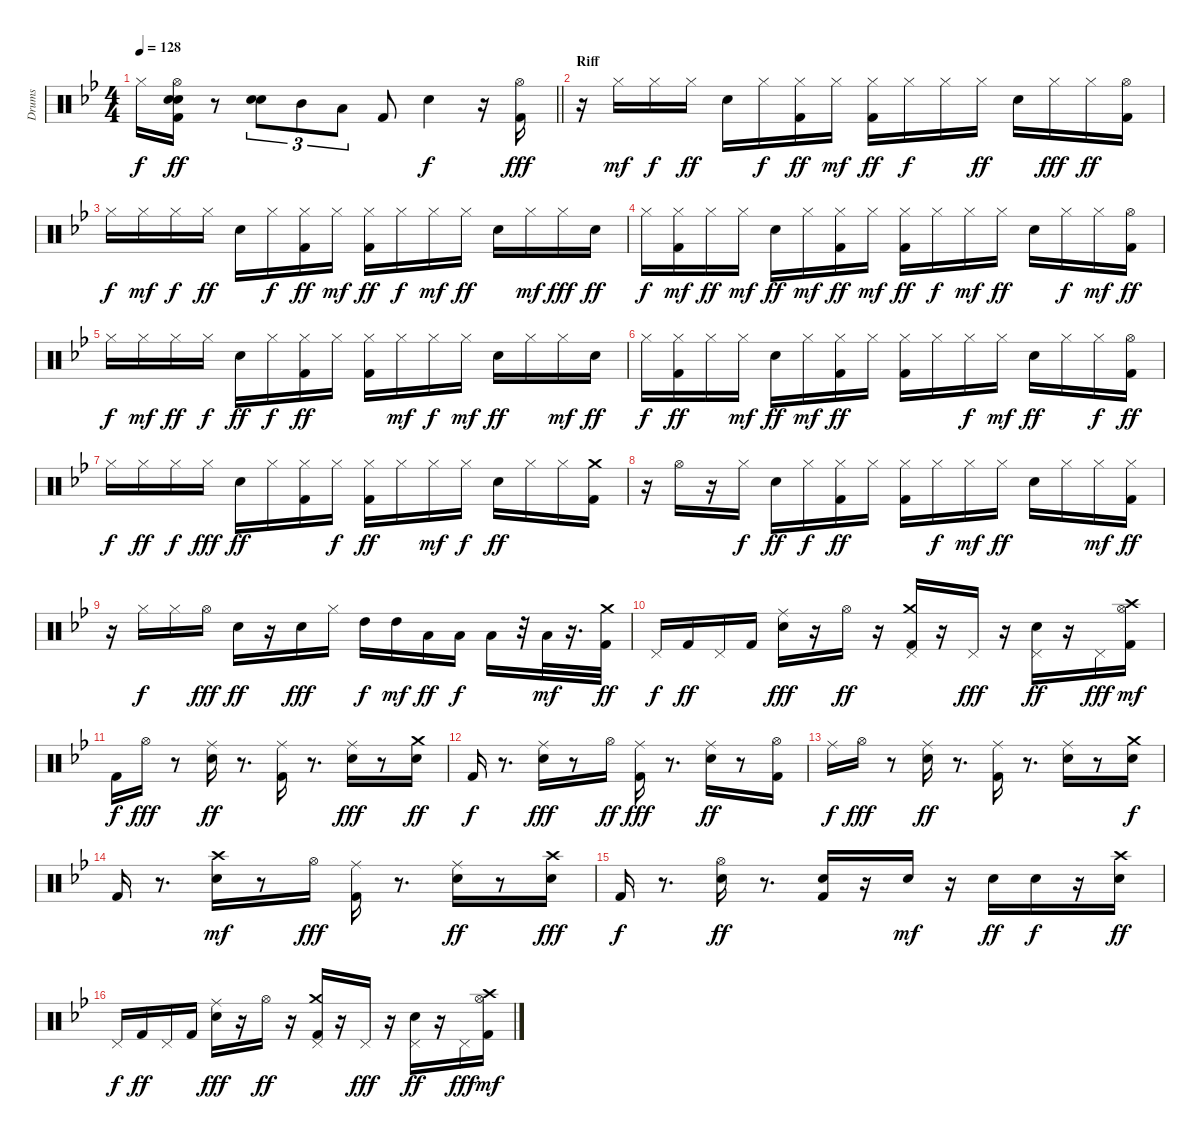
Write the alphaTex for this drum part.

\track ("Drums" "Drums") {instrument percussion}
\staff {score}
\articulation defaults
\ts (4 4)
\tempo 128
\clef neutral
\barLineRight lightlight
\ks gminor "Hi-Hat (closed)".16{dy f}
("Hi-Hat (open)" "Snare (hit) 2" "Kick (hit) 2" "Snare (hit) 2").16{dy ff} r.8 ("Snare (hit) 2" "Snare (hit) 2").8{tu (3 2)} "Mid Tom (hit)".8{tu (3 2)} "Low Tom (hit)".8{tu (3 2)} "Kick (hit) 2".8 "Snare (hit) 2".4{dy f} r.16 ("Kick (hit) 2" "Hi-Hat (open)").16{dy fff} |
\section ("" "Riff")
r.16 "Hi-Hat (closed)".16{dy mf} "Hi-Hat (closed)".16{dy f} "Hi-Hat (closed)".16{dy ff} "Snare (hit) 2".16 "Hi-Hat (closed)".16{dy f} ("Hi-Hat (closed)" "Kick (hit) 2").16{dy ff} "Hi-Hat (closed)".16{dy mf} ("Hi-Hat (closed)" "Kick (hit) 2").16{dy ff} "Hi-Hat (closed)".16{dy f} "Hi-Hat (closed)".16 "Hi-Hat (closed)".16{dy ff} "Snare (hit) 2".16 "Hi-Hat (closed)".16{dy fff} "Hi-Hat (closed)".16{dy ff} ("Hi-Hat (open)" "Kick (hit) 2").16 |
"Hi-Hat (closed)".16{dy f} "Hi-Hat (closed)".16{dy mf} "Hi-Hat (closed)".16{dy f} "Hi-Hat (closed)".16{dy ff} "Snare (hit) 2".16 "Hi-Hat (closed)".16{dy f} ("Hi-Hat (closed)" "Kick (hit) 2").16{dy ff} "Hi-Hat (closed)".16{dy mf} ("Hi-Hat (closed)" "Kick (hit) 2").16{dy ff} "Hi-Hat (closed)".16{dy f} "Hi-Hat (closed)".16{dy mf} "Hi-Hat (closed)".16{dy ff} "Snare (hit) 2".16 "Hi-Hat (closed)".16{dy mf} "Hi-Hat (closed)".16{dy fff} "Snare (hit) 2".16{dy ff} |
"Hi-Hat (closed)".16{dy f} ("Kick (hit) 2" "Hi-Hat (closed)").16{dy mf} "Hi-Hat (closed)".16{dy ff} "Hi-Hat (closed)".16{dy mf} "Snare (hit) 2".16{dy ff} "Hi-Hat (closed)".16{dy mf} ("Kick (hit) 2" "Hi-Hat (closed)").16{dy ff} "Hi-Hat (closed)".16{dy mf} ("Kick (hit) 2" "Hi-Hat (closed)").16{dy ff} "Hi-Hat (closed)".16{dy f} "Hi-Hat (closed)".16{dy mf} "Hi-Hat (closed)".16{dy ff} "Snare (hit) 2".16 "Hi-Hat (closed)".16{dy f} "Hi-Hat (closed)".16{dy mf} ("Kick (hit) 2" "Hi-Hat (open)").16{dy ff} |
"Hi-Hat (closed)".16{dy f} "Hi-Hat (closed)".16{dy mf} "Hi-Hat (closed)".16{dy ff} "Hi-Hat (closed)".16{dy f} "Snare (hit) 2".16{dy ff} "Hi-Hat (closed)".16{dy f} ("Hi-Hat (closed)" "Kick (hit) 2").16{dy ff} "Hi-Hat (closed)".16 ("Hi-Hat (closed)" "Kick (hit) 2").16 "Hi-Hat (closed)".16{dy mf} "Hi-Hat (closed)".16{dy f} "Hi-Hat (closed)".16{dy mf} "Snare (hit) 2".16{dy ff} "Hi-Hat (closed)".16 "Hi-Hat (closed)".16{dy mf} "Snare (hit) 2".16{dy ff} |
"Hi-Hat (closed)".16{dy f} ("Hi-Hat (closed)" "Kick (hit) 2").16{dy ff} "Hi-Hat (closed)".16 "Hi-Hat (closed)".16{dy mf} "Snare (hit) 2".16{dy ff} "Hi-Hat (closed)".16{dy mf} ("Hi-Hat (closed)" "Kick (hit) 2").16{dy ff} "Hi-Hat (closed)".16 ("Hi-Hat (closed)" "Kick (hit) 2").16 "Hi-Hat (closed)".16 "Hi-Hat (closed)".16{dy f} "Hi-Hat (closed)".16{dy mf} "Snare (hit) 2".16{dy ff} "Hi-Hat (closed)".16 "Hi-Hat (closed)".16{dy f} ("Hi-Hat (open)" "Kick (hit) 2").16{dy ff} |
"Hi-Hat (closed)".16{dy f} "Hi-Hat (closed)".16{dy ff} "Hi-Hat (closed)".16{dy f} "Hi-Hat (closed)".16{dy fff} "Snare (hit) 2".16{dy ff} "Hi-Hat (closed)".16 ("Hi-Hat (closed)" "Kick (hit) 2").16 "Hi-Hat (closed)".16{dy f} ("Hi-Hat (closed)" "Kick (hit) 2").16{dy ff} "Hi-Hat (closed)".16 "Hi-Hat (closed)".16{dy mf} "Hi-Hat (closed)".16{dy f} "Snare (hit) 2".16{dy ff} "Hi-Hat (closed)".16 "Hi-Hat (closed)".16 ("Kick (hit) 2" "Crash medium (hit)").16 |
r.16 "Hi-Hat (open)".16 r.16 "Hi-Hat (closed)".16{dy f} "Snare (hit) 2".16{dy ff} "Hi-Hat (closed)".16{dy f} ("Hi-Hat (closed)" "Kick (hit) 2").16{dy ff} "Hi-Hat (closed)".16 ("Hi-Hat (closed)" "Kick (hit) 2").16 "Hi-Hat (closed)".16{dy f} "Hi-Hat (closed)".16{dy mf} "Hi-Hat (closed)".16{dy ff} "Snare (hit) 2".16 "Hi-Hat (closed)".16 "Hi-Hat (closed)".16{dy mf} ("Hi-Hat (closed)" "Kick (hit) 2").16{dy ff} |
r.16 "Hi-Hat (closed)".16{dy f} "Hi-Hat (closed)".16 "Hi-Hat (open)".16{dy fff} "Snare (hit) 2".16{dy ff} r.16 "Snare (hit) 2".16{dy fff} "Hi-Hat (closed)".16 "High Tom (hit)".16{dy f} "High Tom (hit)".16{dy mf} "Low Tom (hit)".16{dy ff} "Low Tom (hit)".16{dy f} "Low Floor Tom (hit)".16 r.32 "Low Floor Tom (hit)".32{dy mf} r.16{d} ("Kick (hit) 2" "Crash medium (hit)").32{dy ff} |
"Pedal Hi-Hat (hit)".16{dy f} "Kick (hit) 2".16{dy ff} "Pedal Hi-Hat (hit)".16 "Kick (hit) 2".16 ("Snare (hit) 2" "Ride (middle)").16{dy fff} r.16 "Hi-Hat (open)".16{dy ff} r.16 ("Crash medium (hit)" "Kick (hit) 2" "Pedal Hi-Hat (hit)").16 r.16 "Pedal Hi-Hat (hit)".16{dy fff} r.16 ("Pedal Hi-Hat (hit)" "Snare (hit) 2").16{dy ff} r.16 "Pedal Hi-Hat (hit)".16{dy fff} ("Hi-Hat (open)" "Kick (hit) 2" "Crash high (hit)").16{dy mf} |
"Kick (hit) 2".16{dy f} "Hi-Hat (open)".16{dy fff} r.8 ("Snare (hit) 2" "Ride (middle)").16{dy ff} r.8{d} ("Kick (hit) 2" "Ride (middle)").16 r.8{d} ("Snare (hit) 2" "Ride (middle)").16{dy fff} r.8 ("Snare (hit) 2" "Crash medium (hit)").16{dy ff} |
"Kick (hit) 2".16{dy f} r.8{d} ("Snare (hit) 2" "Ride (middle)").16{dy fff} r.8 "Hi-Hat (open)".16{dy ff} ("Kick (hit) 2" "Ride (middle)").16{dy fff} r.8{d} ("Snare (hit) 2" "Ride (middle)").16{dy ff} r.8 ("Kick (hit) 2" "Hi-Hat (open)").16 |
"Ride (middle)".16{dy f} "Hi-Hat (open)".16{dy fff} r.8 ("Ride (middle)" "Snare (hit) 2").16{dy ff} r.8{d} ("Ride (middle)" "Kick (hit) 2").16 r.8{d} ("Ride (middle)" "Snare (hit) 2").16 r.8 ("Crash medium (hit)" "Snare (hit) 2").16{dy f} |
"Kick (hit) 2".16 r.8{d} ("Snare (hit) 2" "Crash high (hit)").16{dy mf} r.8 "Hi-Hat (open)".16{dy fff} ("Kick (hit) 2" "Ride (middle)").16 r.8{d} ("Snare (hit) 2" "Ride (middle)").16{dy ff} r.8 ("Snare (hit) 2" "Crash high (hit)").16{dy fff} |
"Kick (hit) 2".16{dy f} r.8{d} ("Snare (hit) 2" "Hi-Hat (open)").16{dy ff} r.8{d} ("Kick (hit) 2" "Snare (hit) 2").16 r.16 "Snare (hit) 2".16{dy mf} r.16 "Snare (hit) 2".16{dy ff} "Snare (hit) 2".16{dy f} r.16 ("Snare (hit) 2" "Crash high (hit)").16{dy ff} |
"Pedal Hi-Hat (hit)".16{dy f} "Kick (hit) 2".16{dy ff} "Pedal Hi-Hat (hit)".16 "Kick (hit) 2".16 ("Snare (hit) 2" "Ride (middle)").16{dy fff} r.16 "Hi-Hat (open)".16{dy ff} r.16 ("Crash medium (hit)" "Kick (hit) 2" "Pedal Hi-Hat (hit)").16 r.16 "Pedal Hi-Hat (hit)".16{dy fff} r.16 ("Pedal Hi-Hat (hit)" "Snare (hit) 2").16{dy ff} r.16 "Pedal Hi-Hat (hit)".16{dy fff} ("Hi-Hat (open)" "Kick (hit) 2" "Crash high (hit)").16{dy mf}
